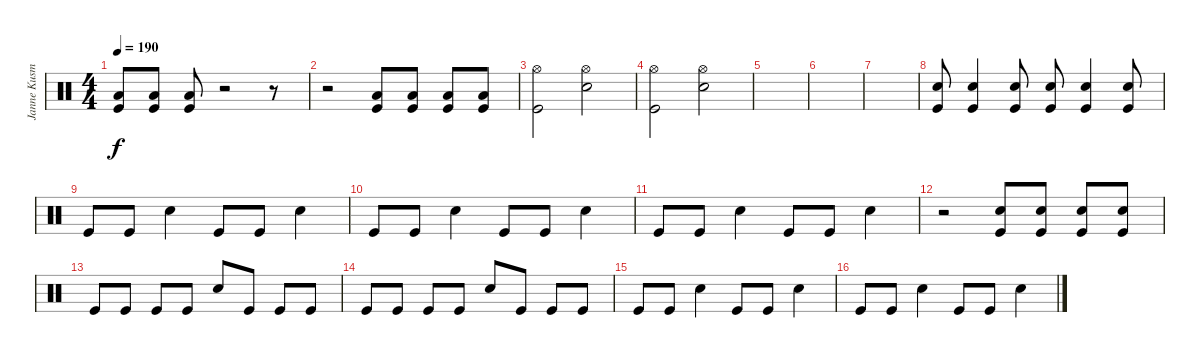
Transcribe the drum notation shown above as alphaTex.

\track ("Janne Kusmin" "Janne Kusm") {instrument percussion}
\staff {score}
\articulation defaults
\ts (4 4)
\tempo 190
\clef neutral
\ks c
("Low Tom (hit)" "Kick (hit)").8{dy f} ("Low Tom (hit)" "Kick (hit)").8 ("Low Tom (hit)" "Kick (hit)").8 r.2 r.8 |
r.2 ("Low Tom (hit)" "Kick (hit)").8 ("Low Tom (hit)" "Kick (hit)").8 ("Low Tom (hit)" "Kick (hit)").8 ("Low Tom (hit)" "Kick (hit)").8 |
("Hi-Hat (open)" "Kick (hit)").2 ("Hi-Hat (open)" "Electric Snare (hit)").2 |
("Hi-Hat (open)" "Kick (hit)").2 ("Hi-Hat (open)" "Electric Snare (hit)").2 |
|
|
|
("Electric Snare (hit)" "Kick (hit)").8 ("Electric Snare (hit)" "Kick (hit)").4 ("Electric Snare (hit)" "Kick (hit)").8 ("Electric Snare (hit)" "Kick (hit)").8 ("Electric Snare (hit)" "Kick (hit)").4 ("Electric Snare (hit)" "Kick (hit)").8 |
"Kick (hit)".8 "Kick (hit)".8 "Electric Snare (hit)".4 "Kick (hit)".8 "Kick (hit)".8 "Electric Snare (hit)".4 |
"Kick (hit)".8 "Kick (hit)".8 "Electric Snare (hit)".4 "Kick (hit)".8 "Kick (hit)".8 "Electric Snare (hit)".4 |
"Kick (hit)".8 "Kick (hit)".8 "Electric Snare (hit)".4 "Kick (hit)".8 "Kick (hit)".8 "Electric Snare (hit)".4 |
r.2 ("Electric Snare (hit)" "Kick (hit)").8 ("Electric Snare (hit)" "Kick (hit)").8 ("Electric Snare (hit)" "Kick (hit)").8 ("Electric Snare (hit)" "Kick (hit)").8 |
"Kick (hit)".8 "Kick (hit)".8 "Kick (hit)".8 "Kick (hit)".8 "Electric Snare (hit)".8 "Kick (hit)".8 "Kick (hit)".8 "Kick (hit)".8 |
"Kick (hit)".8 "Kick (hit)".8 "Kick (hit)".8 "Kick (hit)".8 "Electric Snare (hit)".8 "Kick (hit)".8 "Kick (hit)".8 "Kick (hit)".8 |
"Kick (hit)".8 "Kick (hit)".8 "Electric Snare (hit)".4 "Kick (hit)".8 "Kick (hit)".8 "Electric Snare (hit)".4 |
"Kick (hit)".8 "Kick (hit)".8 "Electric Snare (hit)".4 "Kick (hit)".8 "Kick (hit)".8 "Electric Snare (hit)".4
